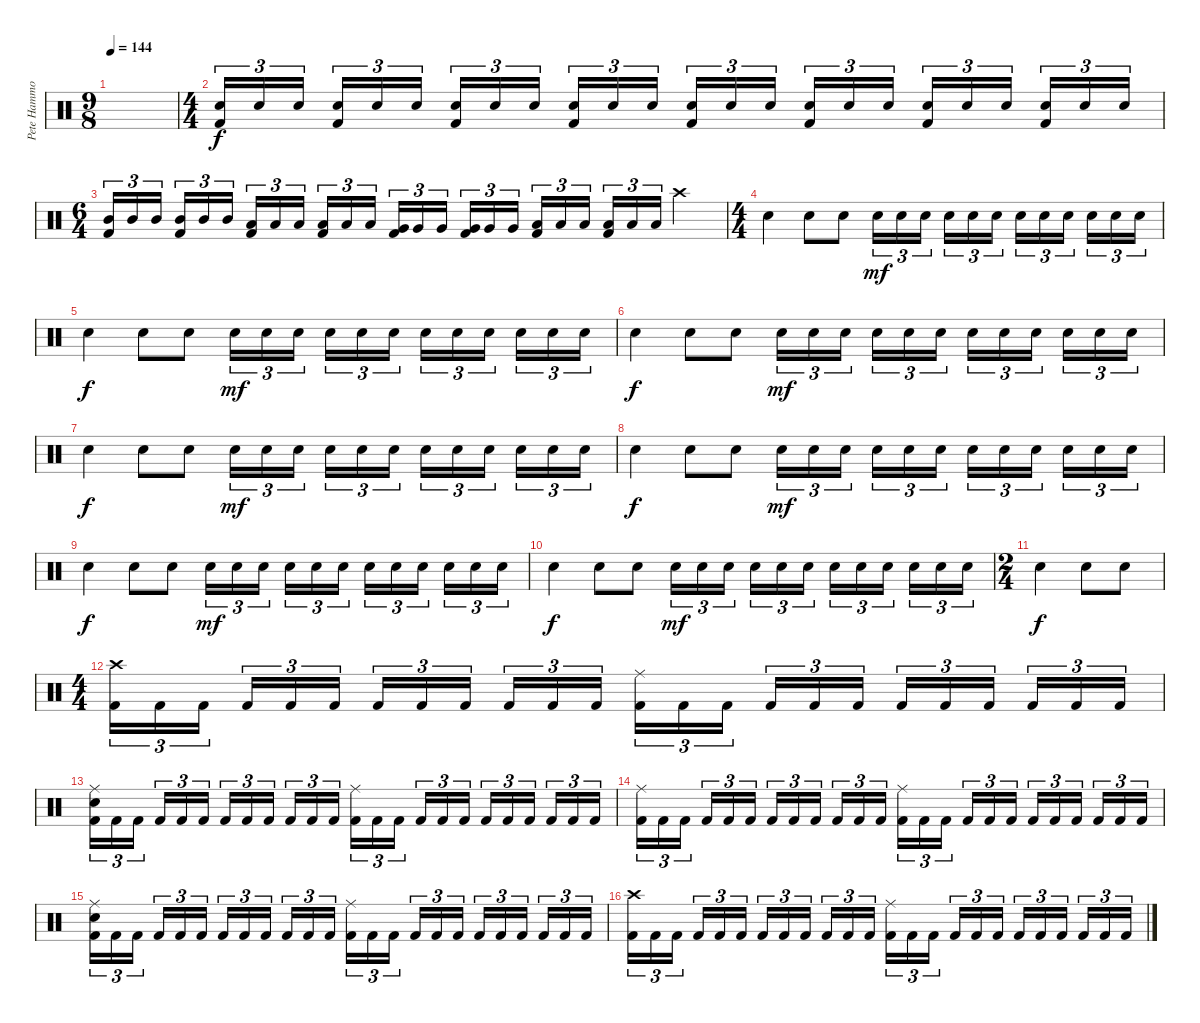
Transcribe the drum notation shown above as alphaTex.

\track ("Pete Hammoura" "Pete Hammo") {instrument percussion}
\staff {score}
\articulation defaults
\ts (9 8)
\tempo 144
\clef neutral
\ks c
|
\ts (4 4)
("Electric Snare (hit)" "Kick (hit) 2").16{tu (3 2)} "Electric Snare (hit)".16{tu (3 2)} "Electric Snare (hit)".16{tu (3 2)} ("Electric Snare (hit)" "Kick (hit) 2").16{tu (3 2)} "Electric Snare (hit)".16{tu (3 2)} "Electric Snare (hit)".16{tu (3 2)} ("Electric Snare (hit)" "Kick (hit) 2").16{tu (3 2)} "Electric Snare (hit)".16{tu (3 2)} "Electric Snare (hit)".16{tu (3 2)} ("Electric Snare (hit)" "Kick (hit) 2").16{tu (3 2)} "Electric Snare (hit)".16{tu (3 2)} "Electric Snare (hit)".16{tu (3 2)} ("Electric Snare (hit)" "Kick (hit) 2").16{tu (3 2)} "Electric Snare (hit)".16{tu (3 2)} "Electric Snare (hit)".16{tu (3 2)} ("Electric Snare (hit)" "Kick (hit) 2").16{tu (3 2)} "Electric Snare (hit)".16{tu (3 2)} "Electric Snare (hit)".16{tu (3 2)} ("Electric Snare (hit)" "Kick (hit) 2").16{tu (3 2)} "Electric Snare (hit)".16{tu (3 2)} "Electric Snare (hit)".16{tu (3 2)} ("Electric Snare (hit)" "Kick (hit) 2").16{tu (3 2)} "Electric Snare (hit)".16{tu (3 2)} "Electric Snare (hit)".16{tu (3 2)} |
\ts (6 4)
("Mid Tom (hit)" "Kick (hit) 2").16{tu (3 2)} "Mid Tom (hit)".16{tu (3 2)} "Mid Tom (hit)".16{tu (3 2)} ("Mid Tom (hit)" "Kick (hit) 2").16{tu (3 2)} "Mid Tom (hit)".16{tu (3 2)} "Mid Tom (hit)".16{tu (3 2)} ("Low Tom (hit)" "Kick (hit) 2").16{tu (3 2)} "Low Tom (hit)".16{tu (3 2)} "Low Tom (hit)".16{tu (3 2)} ("Low Tom (hit)" "Kick (hit) 2").16{tu (3 2)} "Low Tom (hit)".16{tu (3 2)} "Low Tom (hit)".16{tu (3 2)} ("Very Low Tom (hit)" "Kick (hit) 2").16{tu (3 2)} "Very Low Tom (hit)".16{tu (3 2)} "Very Low Tom (hit)".16{tu (3 2)} ("Very Low Tom (hit)" "Kick (hit) 2").16{tu (3 2)} "Very Low Tom (hit)".16{tu (3 2)} "Very Low Tom (hit)".16{tu (3 2)} ("Low Floor Tom (hit)" "Kick (hit) 2").16{tu (3 2)} "Low Floor Tom (hit)".16{tu (3 2)} "Low Floor Tom (hit)".16{tu (3 2)} ("Low Floor Tom (hit)" "Kick (hit) 2").16{tu (3 2)} "Low Floor Tom (hit)".16{tu (3 2)} "Low Floor Tom (hit)".16{tu (3 2)} "Crash high (hit)".2 |
\ts (4 4)
"Electric Snare (hit)".4 "Electric Snare (hit)".8 "Electric Snare (hit)".8 "Electric Snare (hit)".16{tu (3 2) dy mf} "Electric Snare (hit)".16{tu (3 2)} "Electric Snare (hit)".16{tu (3 2)} "Electric Snare (hit)".16{tu (3 2)} "Electric Snare (hit)".16{tu (3 2)} "Electric Snare (hit)".16{tu (3 2)} "Electric Snare (hit)".16{tu (3 2)} "Electric Snare (hit)".16{tu (3 2)} "Electric Snare (hit)".16{tu (3 2)} "Electric Snare (hit)".16{tu (3 2)} "Electric Snare (hit)".16{tu (3 2)} "Electric Snare (hit)".16{tu (3 2)} |
"Electric Snare (hit)".4{dy f} "Electric Snare (hit)".8 "Electric Snare (hit)".8 "Electric Snare (hit)".16{tu (3 2) dy mf} "Electric Snare (hit)".16{tu (3 2)} "Electric Snare (hit)".16{tu (3 2)} "Electric Snare (hit)".16{tu (3 2)} "Electric Snare (hit)".16{tu (3 2)} "Electric Snare (hit)".16{tu (3 2)} "Electric Snare (hit)".16{tu (3 2)} "Electric Snare (hit)".16{tu (3 2)} "Electric Snare (hit)".16{tu (3 2)} "Electric Snare (hit)".16{tu (3 2)} "Electric Snare (hit)".16{tu (3 2)} "Electric Snare (hit)".16{tu (3 2)} |
"Electric Snare (hit)".4{dy f} "Electric Snare (hit)".8 "Electric Snare (hit)".8 "Electric Snare (hit)".16{tu (3 2) dy mf} "Electric Snare (hit)".16{tu (3 2)} "Electric Snare (hit)".16{tu (3 2)} "Electric Snare (hit)".16{tu (3 2)} "Electric Snare (hit)".16{tu (3 2)} "Electric Snare (hit)".16{tu (3 2)} "Electric Snare (hit)".16{tu (3 2)} "Electric Snare (hit)".16{tu (3 2)} "Electric Snare (hit)".16{tu (3 2)} "Electric Snare (hit)".16{tu (3 2)} "Electric Snare (hit)".16{tu (3 2)} "Electric Snare (hit)".16{tu (3 2)} |
"Electric Snare (hit)".4{dy f} "Electric Snare (hit)".8 "Electric Snare (hit)".8 "Electric Snare (hit)".16{tu (3 2) dy mf} "Electric Snare (hit)".16{tu (3 2)} "Electric Snare (hit)".16{tu (3 2)} "Electric Snare (hit)".16{tu (3 2)} "Electric Snare (hit)".16{tu (3 2)} "Electric Snare (hit)".16{tu (3 2)} "Electric Snare (hit)".16{tu (3 2)} "Electric Snare (hit)".16{tu (3 2)} "Electric Snare (hit)".16{tu (3 2)} "Electric Snare (hit)".16{tu (3 2)} "Electric Snare (hit)".16{tu (3 2)} "Electric Snare (hit)".16{tu (3 2)} |
"Electric Snare (hit)".4{dy f} "Electric Snare (hit)".8 "Electric Snare (hit)".8 "Electric Snare (hit)".16{tu (3 2) dy mf} "Electric Snare (hit)".16{tu (3 2)} "Electric Snare (hit)".16{tu (3 2)} "Electric Snare (hit)".16{tu (3 2)} "Electric Snare (hit)".16{tu (3 2)} "Electric Snare (hit)".16{tu (3 2)} "Electric Snare (hit)".16{tu (3 2)} "Electric Snare (hit)".16{tu (3 2)} "Electric Snare (hit)".16{tu (3 2)} "Electric Snare (hit)".16{tu (3 2)} "Electric Snare (hit)".16{tu (3 2)} "Electric Snare (hit)".16{tu (3 2)} |
"Electric Snare (hit)".4{dy f} "Electric Snare (hit)".8 "Electric Snare (hit)".8 "Electric Snare (hit)".16{tu (3 2) dy mf} "Electric Snare (hit)".16{tu (3 2)} "Electric Snare (hit)".16{tu (3 2)} "Electric Snare (hit)".16{tu (3 2)} "Electric Snare (hit)".16{tu (3 2)} "Electric Snare (hit)".16{tu (3 2)} "Electric Snare (hit)".16{tu (3 2)} "Electric Snare (hit)".16{tu (3 2)} "Electric Snare (hit)".16{tu (3 2)} "Electric Snare (hit)".16{tu (3 2)} "Electric Snare (hit)".16{tu (3 2)} "Electric Snare (hit)".16{tu (3 2)} |
"Electric Snare (hit)".4{dy f} "Electric Snare (hit)".8 "Electric Snare (hit)".8 "Electric Snare (hit)".16{tu (3 2) dy mf} "Electric Snare (hit)".16{tu (3 2)} "Electric Snare (hit)".16{tu (3 2)} "Electric Snare (hit)".16{tu (3 2)} "Electric Snare (hit)".16{tu (3 2)} "Electric Snare (hit)".16{tu (3 2)} "Electric Snare (hit)".16{tu (3 2)} "Electric Snare (hit)".16{tu (3 2)} "Electric Snare (hit)".16{tu (3 2)} "Electric Snare (hit)".16{tu (3 2)} "Electric Snare (hit)".16{tu (3 2)} "Electric Snare (hit)".16{tu (3 2)} |
\ts (2 4)
"Electric Snare (hit)".4{dy f} "Electric Snare (hit)".8 "Electric Snare (hit)".8 |
\ts (4 4)
("Crash high (hit)" "Kick (hit) 2").16{tu (3 2)} "Kick (hit) 2".16{tu (3 2)} "Kick (hit) 2".16{tu (3 2)} "Kick (hit) 2".16{tu (3 2)} "Kick (hit) 2".16{tu (3 2)} "Kick (hit) 2".16{tu (3 2)} "Kick (hit) 2".16{tu (3 2)} "Kick (hit) 2".16{tu (3 2)} "Kick (hit) 2".16{tu (3 2)} "Kick (hit) 2".16{tu (3 2)} "Kick (hit) 2".16{tu (3 2)} "Kick (hit) 2".16{tu (3 2)} ("Ride (middle)" "Kick (hit) 2").16{tu (3 2)} "Kick (hit) 2".16{tu (3 2)} "Kick (hit) 2".16{tu (3 2)} "Kick (hit) 2".16{tu (3 2)} "Kick (hit) 2".16{tu (3 2)} "Kick (hit) 2".16{tu (3 2)} "Kick (hit) 2".16{tu (3 2)} "Kick (hit) 2".16{tu (3 2)} "Kick (hit) 2".16{tu (3 2)} "Kick (hit) 2".16{tu (3 2)} "Kick (hit) 2".16{tu (3 2)} "Kick (hit) 2".16{tu (3 2)} |
("Ride (middle)" "Electric Snare (hit)" "Kick (hit) 2").16{tu (3 2)} "Kick (hit) 2".16{tu (3 2)} "Kick (hit) 2".16{tu (3 2)} "Kick (hit) 2".16{tu (3 2)} "Kick (hit) 2".16{tu (3 2)} "Kick (hit) 2".16{tu (3 2)} "Kick (hit) 2".16{tu (3 2)} "Kick (hit) 2".16{tu (3 2)} "Kick (hit) 2".16{tu (3 2)} "Kick (hit) 2".16{tu (3 2)} "Kick (hit) 2".16{tu (3 2)} "Kick (hit) 2".16{tu (3 2)} ("Ride (middle)" "Kick (hit) 2").16{tu (3 2)} "Kick (hit) 2".16{tu (3 2)} "Kick (hit) 2".16{tu (3 2)} "Kick (hit) 2".16{tu (3 2)} "Kick (hit) 2".16{tu (3 2)} "Kick (hit) 2".16{tu (3 2)} "Kick (hit) 2".16{tu (3 2)} "Kick (hit) 2".16{tu (3 2)} "Kick (hit) 2".16{tu (3 2)} "Kick (hit) 2".16{tu (3 2)} "Kick (hit) 2".16{tu (3 2)} "Kick (hit) 2".16{tu (3 2)} |
("Ride (middle)" "Kick (hit) 2").16{tu (3 2)} "Kick (hit) 2".16{tu (3 2)} "Kick (hit) 2".16{tu (3 2)} "Kick (hit) 2".16{tu (3 2)} "Kick (hit) 2".16{tu (3 2)} "Kick (hit) 2".16{tu (3 2)} "Kick (hit) 2".16{tu (3 2)} "Kick (hit) 2".16{tu (3 2)} "Kick (hit) 2".16{tu (3 2)} "Kick (hit) 2".16{tu (3 2)} "Kick (hit) 2".16{tu (3 2)} "Kick (hit) 2".16{tu (3 2)} ("Ride (middle)" "Kick (hit) 2").16{tu (3 2)} "Kick (hit) 2".16{tu (3 2)} "Kick (hit) 2".16{tu (3 2)} "Kick (hit) 2".16{tu (3 2)} "Kick (hit) 2".16{tu (3 2)} "Kick (hit) 2".16{tu (3 2)} "Kick (hit) 2".16{tu (3 2)} "Kick (hit) 2".16{tu (3 2)} "Kick (hit) 2".16{tu (3 2)} "Kick (hit) 2".16{tu (3 2)} "Kick (hit) 2".16{tu (3 2)} "Kick (hit) 2".16{tu (3 2)} |
("Ride (middle)" "Electric Snare (hit)" "Kick (hit) 2").16{tu (3 2)} "Kick (hit) 2".16{tu (3 2)} "Kick (hit) 2".16{tu (3 2)} "Kick (hit) 2".16{tu (3 2)} "Kick (hit) 2".16{tu (3 2)} "Kick (hit) 2".16{tu (3 2)} "Kick (hit) 2".16{tu (3 2)} "Kick (hit) 2".16{tu (3 2)} "Kick (hit) 2".16{tu (3 2)} "Kick (hit) 2".16{tu (3 2)} "Kick (hit) 2".16{tu (3 2)} "Kick (hit) 2".16{tu (3 2)} ("Ride (middle)" "Kick (hit) 2").16{tu (3 2)} "Kick (hit) 2".16{tu (3 2)} "Kick (hit) 2".16{tu (3 2)} "Kick (hit) 2".16{tu (3 2)} "Kick (hit) 2".16{tu (3 2)} "Kick (hit) 2".16{tu (3 2)} "Kick (hit) 2".16{tu (3 2)} "Kick (hit) 2".16{tu (3 2)} "Kick (hit) 2".16{tu (3 2)} "Kick (hit) 2".16{tu (3 2)} "Kick (hit) 2".16{tu (3 2)} "Kick (hit) 2".16{tu (3 2)} |
("Crash high (hit)" "Kick (hit) 2").16{tu (3 2)} "Kick (hit) 2".16{tu (3 2)} "Kick (hit) 2".16{tu (3 2)} "Kick (hit) 2".16{tu (3 2)} "Kick (hit) 2".16{tu (3 2)} "Kick (hit) 2".16{tu (3 2)} "Kick (hit) 2".16{tu (3 2)} "Kick (hit) 2".16{tu (3 2)} "Kick (hit) 2".16{tu (3 2)} "Kick (hit) 2".16{tu (3 2)} "Kick (hit) 2".16{tu (3 2)} "Kick (hit) 2".16{tu (3 2)} ("Ride (middle)" "Kick (hit) 2").16{tu (3 2)} "Kick (hit) 2".16{tu (3 2)} "Kick (hit) 2".16{tu (3 2)} "Kick (hit) 2".16{tu (3 2)} "Kick (hit) 2".16{tu (3 2)} "Kick (hit) 2".16{tu (3 2)} "Kick (hit) 2".16{tu (3 2)} "Kick (hit) 2".16{tu (3 2)} "Kick (hit) 2".16{tu (3 2)} "Kick (hit) 2".16{tu (3 2)} "Kick (hit) 2".16{tu (3 2)} "Kick (hit) 2".16{tu (3 2)}
